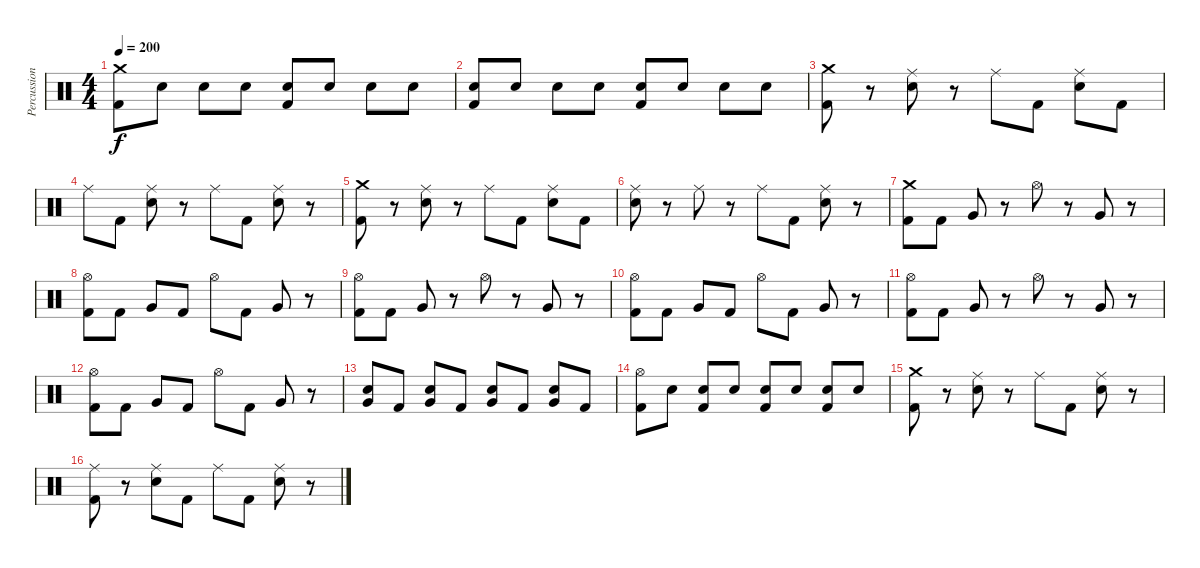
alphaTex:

\track ("Percussion" "Percussion") {instrument percussion}
\staff {score}
\articulation defaults
\ts (4 4)
\tempo 200
\clef neutral
\ks c
("Crash medium (hit)" "Kick (hit) 2").8{dy f} "Snare (hit) 2".8 "Snare (hit) 2".8 "Snare (hit) 2".8 ("Snare (hit) 2" "Kick (hit) 2").8 "Snare (hit) 2".8 "Snare (hit) 2".8 "Snare (hit) 2".8 |
("Snare (hit) 2" "Kick (hit) 2").8 "Snare (hit) 2".8 "Snare (hit) 2".8 "Snare (hit) 2".8 ("Snare (hit) 2" "Kick (hit) 2").8 "Snare (hit) 2".8 "Snare (hit) 2".8 "Snare (hit) 2".8 |
("Crash medium (hit)" "Kick (hit) 2").8 r.8 ("Ride (middle)" "Snare (hit) 2").8 r.8 "Ride (middle)".8 "Kick (hit) 2".8 ("Ride (middle)" "Snare (hit) 2").8 "Kick (hit) 2".8 |
"Ride (middle)".8 "Kick (hit) 2".8 ("Ride (middle)" "Snare (hit) 2").8 r.8 "Ride (middle)".8 "Kick (hit) 2".8 ("Ride (middle)" "Snare (hit) 2").8 r.8 |
("Crash medium (hit)" "Kick (hit) 2").8 r.8 ("Ride (middle)" "Snare (hit) 2").8 r.8 "Ride (middle)".8 "Kick (hit) 2".8 ("Ride (middle)" "Snare (hit) 2").8 "Kick (hit) 2".8 |
("Ride (middle)" "Snare (hit) 2").8 r.8 "Ride (middle)".8 r.8 "Ride (middle)".8 "Kick (hit) 2".8 ("Ride (middle)" "Snare (hit) 2").8 r.8 |
("Crash medium (hit)" "Kick (hit) 2").8 "Kick (hit) 2".8 "Very Low Tom (hit)".8 r.8 "Hi-Hat (open)".8 r.8 "Very Low Tom (hit)".8 r.8 |
("Hi-Hat (open)" "Kick (hit) 2").8 "Kick (hit) 2".8 "Very Low Tom (hit)".8 "Kick (hit) 2".8 "Hi-Hat (open)".8 "Kick (hit) 2".8 "Very Low Tom (hit)".8 r.8 |
("Hi-Hat (open)" "Kick (hit) 2").8 "Kick (hit) 2".8 "Very Low Tom (hit)".8 r.8 "Hi-Hat (open)".8 r.8 "Very Low Tom (hit)".8 r.8 |
("Hi-Hat (open)" "Kick (hit) 2").8 "Kick (hit) 2".8 "Very Low Tom (hit)".8 "Kick (hit) 2".8 "Hi-Hat (open)".8 "Kick (hit) 2".8 "Very Low Tom (hit)".8 r.8 |
("Hi-Hat (open)" "Kick (hit) 2").8 "Kick (hit) 2".8 "Very Low Tom (hit)".8 r.8 "Hi-Hat (open)".8 r.8 "Very Low Tom (hit)".8 r.8 |
("Hi-Hat (open)" "Kick (hit) 2").8 "Kick (hit) 2".8 "Very Low Tom (hit)".8 "Kick (hit) 2".8 "Hi-Hat (open)".8 "Kick (hit) 2".8 "Very Low Tom (hit)".8 r.8 |
("Snare (hit) 2" "Very Low Tom (hit)").8 "Kick (hit) 2".8 ("Snare (hit) 2" "Very Low Tom (hit)").8 "Kick (hit) 2".8 ("Snare (hit) 2" "Very Low Tom (hit)").8 "Kick (hit) 2".8 ("Snare (hit) 2" "Very Low Tom (hit)").8 "Kick (hit) 2".8 |
("Hi-Hat (open)" "Kick (hit) 2").8 "Snare (hit) 2".8 ("Snare (hit) 2" "Kick (hit) 2").8 "Snare (hit) 2".8 ("Snare (hit) 2" "Kick (hit) 2").8 "Snare (hit) 2".8 ("Snare (hit) 2" "Kick (hit) 2").8 "Snare (hit) 2".8 |
("Crash medium (hit)" "Kick (hit) 2").8 r.8 ("Ride (middle)" "Snare (hit) 2").8 r.8 "Ride (middle)".8 "Kick (hit) 2".8 ("Ride (middle)" "Snare (hit) 2").8 r.8 |
("Ride (middle)" "Kick (hit) 2").8 r.8 ("Ride (middle)" "Snare (hit) 2").8 "Kick (hit) 2".8 "Ride (middle)".8 "Kick (hit) 2".8 ("Ride (middle)" "Snare (hit) 2").8 r.8
